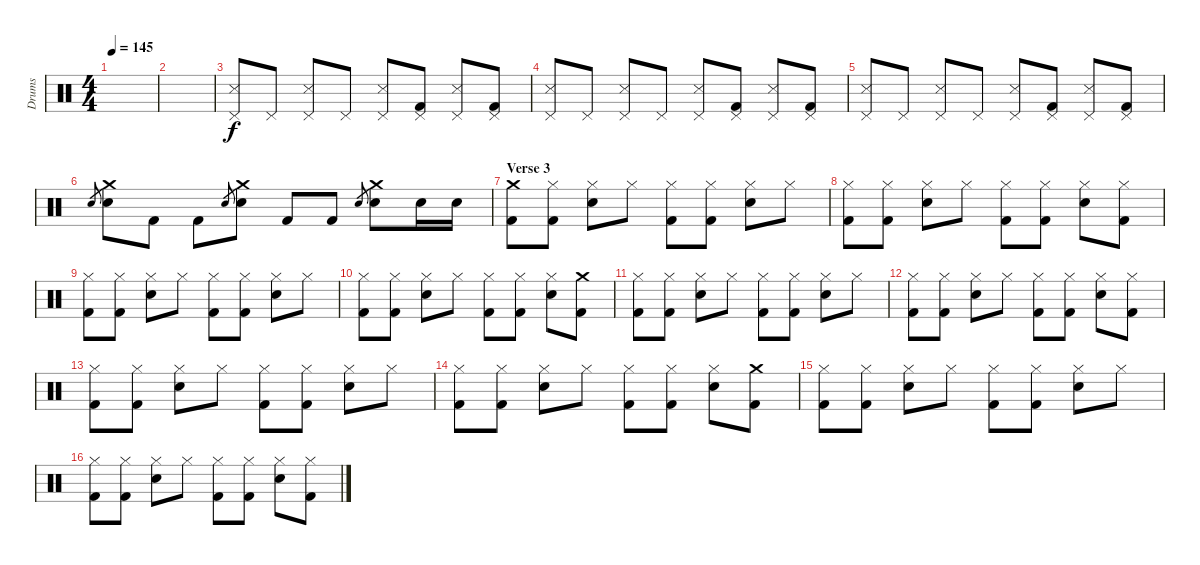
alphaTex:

\track ("Drums" "Drums") {instrument percussion}
\staff {score}
\articulation defaults
\ts (4 4)
\tempo 145
\clef neutral
\ks c
|
|
("Pedal Hi-Hat (hit)" "Snare (side stick) 3").8 "Pedal Hi-Hat (hit)".8 ("Pedal Hi-Hat (hit)" "Snare (side stick) 3").8 "Pedal Hi-Hat (hit)".8 ("Pedal Hi-Hat (hit)" "Snare (side stick) 3").8 ("Pedal Hi-Hat (hit)" "Kick (hit) 2").8 ("Pedal Hi-Hat (hit)" "Snare (side stick) 3").8 ("Pedal Hi-Hat (hit)" "Kick (hit) 2").8 |
("Pedal Hi-Hat (hit)" "Snare (side stick) 3").8 "Pedal Hi-Hat (hit)".8 ("Pedal Hi-Hat (hit)" "Snare (side stick) 3").8 "Pedal Hi-Hat (hit)".8 ("Pedal Hi-Hat (hit)" "Snare (side stick) 3").8 ("Pedal Hi-Hat (hit)" "Kick (hit) 2").8 ("Pedal Hi-Hat (hit)" "Snare (side stick) 3").8 ("Pedal Hi-Hat (hit)" "Kick (hit) 2").8 |
("Pedal Hi-Hat (hit)" "Snare (side stick) 3").8 "Pedal Hi-Hat (hit)".8 ("Pedal Hi-Hat (hit)" "Snare (side stick) 3").8 "Pedal Hi-Hat (hit)".8 ("Pedal Hi-Hat (hit)" "Snare (side stick) 3").8 ("Pedal Hi-Hat (hit)" "Kick (hit) 2").8 ("Pedal Hi-Hat (hit)" "Snare (side stick) 3").8 ("Pedal Hi-Hat (hit)" "Kick (hit) 2").8 |
"Electric Snare (hit)".8{gr} ("Crash medium (hit)" "Electric Snare (hit)").8 "Kick (hit) 2".8 "Kick (hit) 2".8 "Electric Snare (hit)".8{gr} ("Crash medium (hit)" "Electric Snare (hit)").8 "Kick (hit) 2".8 "Kick (hit) 2".8 "Electric Snare (hit)".8{gr} ("Crash medium (hit)" "Electric Snare (hit)").8 "Electric Snare (hit)".16 "Electric Snare (hit)".16 |
\section ("" "Verse 3")
("Crash medium (hit)" "Kick (hit) 2").8 ("Hi-Hat (closed)" "Kick (hit) 2").8 ("Hi-Hat (closed)" "Electric Snare (hit)").8 "Hi-Hat (closed)".8 ("Hi-Hat (closed)" "Kick (hit) 2").8 ("Hi-Hat (closed)" "Kick (hit) 2").8 ("Hi-Hat (closed)" "Electric Snare (hit)").8 "Hi-Hat (closed)".8 |
("Hi-Hat (closed)" "Kick (hit) 2").8 ("Hi-Hat (closed)" "Kick (hit) 2").8 ("Hi-Hat (closed)" "Electric Snare (hit)").8 "Hi-Hat (closed)".8 ("Hi-Hat (closed)" "Kick (hit) 2").8 ("Hi-Hat (closed)" "Kick (hit) 2").8 ("Hi-Hat (closed)" "Electric Snare (hit)").8 ("Hi-Hat (closed)" "Kick (hit) 2").8 |
("Hi-Hat (closed)" "Kick (hit) 2").8 ("Hi-Hat (closed)" "Kick (hit) 2").8 ("Hi-Hat (closed)" "Electric Snare (hit)").8 "Hi-Hat (closed)".8 ("Hi-Hat (closed)" "Kick (hit) 2").8 ("Hi-Hat (closed)" "Kick (hit) 2").8 ("Hi-Hat (closed)" "Electric Snare (hit)").8 "Hi-Hat (closed)".8 |
("Hi-Hat (closed)" "Kick (hit) 2").8 ("Hi-Hat (closed)" "Kick (hit) 2").8 ("Hi-Hat (closed)" "Electric Snare (hit)").8 "Hi-Hat (closed)".8 ("Hi-Hat (closed)" "Kick (hit) 2").8 ("Hi-Hat (closed)" "Kick (hit) 2").8 ("Hi-Hat (closed)" "Electric Snare (hit)").8 ("Crash medium (hit)" "Kick (hit) 2").8 |
("Hi-Hat (closed)" "Kick (hit) 2").8 ("Hi-Hat (closed)" "Kick (hit) 2").8 ("Hi-Hat (closed)" "Electric Snare (hit)").8 "Hi-Hat (closed)".8 ("Hi-Hat (closed)" "Kick (hit) 2").8 ("Hi-Hat (closed)" "Kick (hit) 2").8 ("Hi-Hat (closed)" "Electric Snare (hit)").8 "Hi-Hat (closed)".8 |
("Hi-Hat (closed)" "Kick (hit) 2").8 ("Hi-Hat (closed)" "Kick (hit) 2").8 ("Hi-Hat (closed)" "Electric Snare (hit)").8 "Hi-Hat (closed)".8 ("Hi-Hat (closed)" "Kick (hit) 2").8 ("Hi-Hat (closed)" "Kick (hit) 2").8 ("Hi-Hat (closed)" "Electric Snare (hit)").8 ("Hi-Hat (closed)" "Kick (hit) 2").8 |
("Hi-Hat (closed)" "Kick (hit) 2").8 ("Hi-Hat (closed)" "Kick (hit) 2").8 ("Hi-Hat (closed)" "Electric Snare (hit)").8 "Hi-Hat (closed)".8 ("Hi-Hat (closed)" "Kick (hit) 2").8 ("Hi-Hat (closed)" "Kick (hit) 2").8 ("Hi-Hat (closed)" "Electric Snare (hit)").8 "Hi-Hat (closed)".8 |
("Hi-Hat (closed)" "Kick (hit) 2").8 ("Hi-Hat (closed)" "Kick (hit) 2").8 ("Hi-Hat (closed)" "Electric Snare (hit)").8 "Hi-Hat (closed)".8 ("Hi-Hat (closed)" "Kick (hit) 2").8 ("Hi-Hat (closed)" "Kick (hit) 2").8 ("Hi-Hat (closed)" "Electric Snare (hit)").8 ("Crash medium (hit)" "Kick (hit) 2").8 |
("Hi-Hat (closed)" "Kick (hit) 2").8 ("Hi-Hat (closed)" "Kick (hit) 2").8 ("Hi-Hat (closed)" "Electric Snare (hit)").8 "Hi-Hat (closed)".8 ("Hi-Hat (closed)" "Kick (hit) 2").8 ("Hi-Hat (closed)" "Kick (hit) 2").8 ("Hi-Hat (closed)" "Electric Snare (hit)").8 "Hi-Hat (closed)".8 |
("Hi-Hat (closed)" "Kick (hit) 2").8 ("Hi-Hat (closed)" "Kick (hit) 2").8 ("Hi-Hat (closed)" "Electric Snare (hit)").8 "Hi-Hat (closed)".8 ("Hi-Hat (closed)" "Kick (hit) 2").8 ("Hi-Hat (closed)" "Kick (hit) 2").8 ("Hi-Hat (closed)" "Electric Snare (hit)").8 ("Hi-Hat (closed)" "Kick (hit) 2").8
